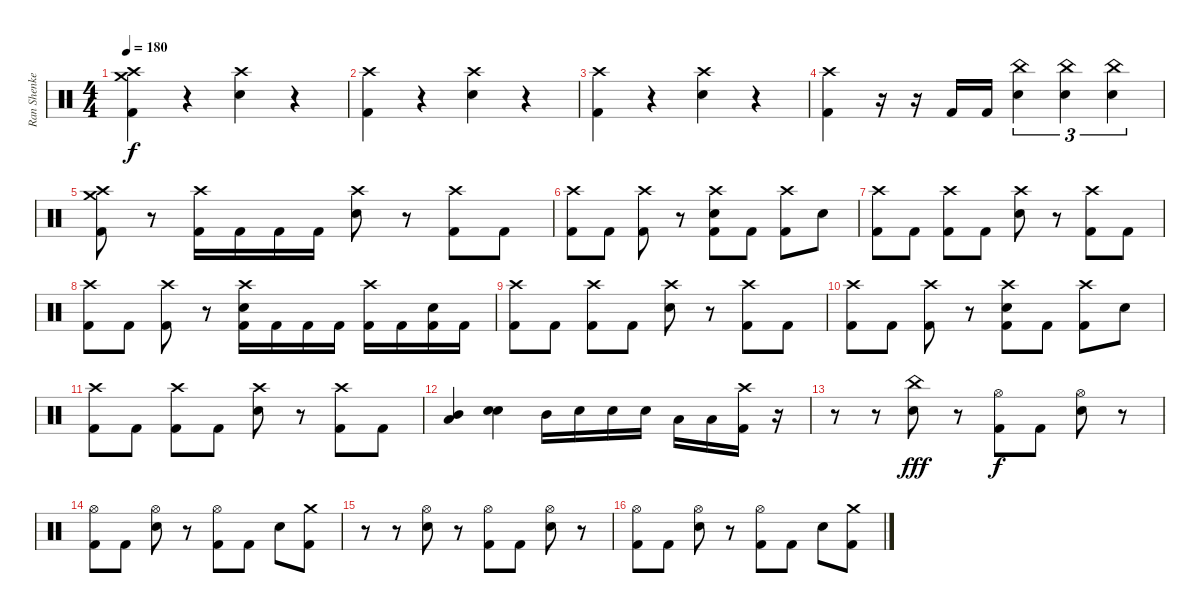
\track ("Ran Shenkerman" "Ran Shenke") {instrument percussion}
\staff {score}
\articulation defaults
\ts (4 4)
\tempo 180
\clef neutral
\ks c
("Crash high (hit)" "Crash medium (hit)" "Kick (hit) 2").4{dy f} r.4 ("Crash high (hit)" "Snare (hit) 2").4 r.4 |
("Crash high (hit)" "Kick (hit) 2").4 r.4 ("Crash high (hit)" "Snare (hit) 2").4 r.4 |
("Crash high (hit)" "Kick (hit) 2").4 r.4 ("Crash high (hit)" "Snare (hit) 2").4 r.4 |
("Crash high (hit)" "Kick (hit) 2").4 r.16 r.16 "Kick (hit) 2".16 "Kick (hit) 2".16 ("China (hit)" "Snare (hit) 2").4{tu (3 2)} ("China (hit)" "Snare (hit) 2").4{tu (3 2)} ("China (hit)" "Snare (hit) 2").4{tu (3 2)} |
("Crash high (hit)" "Crash medium (hit)" "Kick (hit) 2").8 r.8 ("Crash high (hit)" "Kick (hit) 2").16 "Kick (hit) 2".16 "Kick (hit) 2".16 "Kick (hit) 2".16 ("Crash high (hit)" "Snare (hit) 2").8 r.8 ("Crash high (hit)" "Kick (hit) 2").8 "Kick (hit) 2".8 |
("Crash high (hit)" "Kick (hit) 2").8 "Kick (hit) 2".8 ("Crash high (hit)" "Kick (hit) 2").8 r.8 ("Crash high (hit)" "Snare (hit) 2" "Kick (hit) 2").8 "Kick (hit) 2".8 ("Crash high (hit)" "Kick (hit) 2").8 "Snare (hit) 2".8 |
("Crash high (hit)" "Kick (hit) 2").8 "Kick (hit) 2".8 ("Crash high (hit)" "Kick (hit) 2").8 "Kick (hit) 2".8 ("Crash high (hit)" "Snare (hit) 2").8 r.8 ("Crash high (hit)" "Kick (hit) 2").8 "Kick (hit) 2".8 |
("Crash high (hit)" "Kick (hit) 2").8 "Kick (hit) 2".8 ("Crash high (hit)" "Kick (hit) 2").8 r.8 ("Crash high (hit)" "Snare (hit) 2" "Kick (hit) 2").16 "Kick (hit) 2".16 "Kick (hit) 2".16 "Kick (hit) 2".16 ("Crash high (hit)" "Kick (hit) 2").16 "Kick (hit) 2".16 ("Snare (hit) 2" "Kick (hit) 2").16 "Kick (hit) 2".16 |
("Crash high (hit)" "Kick (hit) 2").8 "Kick (hit) 2".8 ("Crash high (hit)" "Kick (hit) 2").8 "Kick (hit) 2".8 ("Crash high (hit)" "Snare (hit) 2").8 r.8 ("Crash high (hit)" "Kick (hit) 2").8 "Kick (hit) 2".8 |
("Crash high (hit)" "Kick (hit) 2").8 "Kick (hit) 2".8 ("Crash high (hit)" "Kick (hit) 2").8 r.8 ("Crash high (hit)" "Snare (hit) 2" "Kick (hit) 2").8 "Kick (hit) 2".8 ("Crash high (hit)" "Kick (hit) 2").8 "Snare (hit) 2".8 |
("Crash high (hit)" "Kick (hit) 2").8 "Kick (hit) 2".8 ("Crash high (hit)" "Kick (hit) 2").8 "Kick (hit) 2".8 ("Crash high (hit)" "Snare (hit) 2").8 r.8 ("Crash high (hit)" "Kick (hit) 2").8 "Kick (hit) 2".8 |
("Mid Tom (hit)" "Low Tom (hit)").4 ("Snare (hit) 2" "Snare (hit) 2").4 "Mid Tom (hit)".16 "Snare (hit) 2".16 "Snare (hit) 2".16 "Snare (hit) 2".16 "Low Floor Tom (hit)".16 "Low Floor Tom (hit)".16 ("Crash high (hit)" "Kick (hit) 2").16 r.16 |
r.8 r.8 ("China (hit)" "Snare (hit) 2").8{dy fff} r.8 ("Hi-Hat (open)" "Kick (hit) 2").8{dy f} "Kick (hit) 2".8 ("Hi-Hat (open)" "Snare (hit) 2").8 r.8 |
("Hi-Hat (open)" "Kick (hit) 2").8 "Kick (hit) 2".8 ("Hi-Hat (open)" "Snare (hit) 2").8 r.8 ("Hi-Hat (open)" "Kick (hit) 2").8 "Kick (hit) 2".8 "Snare (hit) 2".8 ("Crash medium (hit)" "Kick (hit) 2").8 |
r.8 r.8 ("Hi-Hat (open)" "Snare (hit) 2").8 r.8 ("Hi-Hat (open)" "Kick (hit) 2").8 "Kick (hit) 2".8 ("Hi-Hat (open)" "Snare (hit) 2").8 r.8 |
("Hi-Hat (open)" "Kick (hit) 2").8 "Kick (hit) 2".8 ("Hi-Hat (open)" "Snare (hit) 2").8 r.8 ("Hi-Hat (open)" "Kick (hit) 2").8 "Kick (hit) 2".8 "Snare (hit) 2".8 ("Crash medium (hit)" "Kick (hit) 2").8
